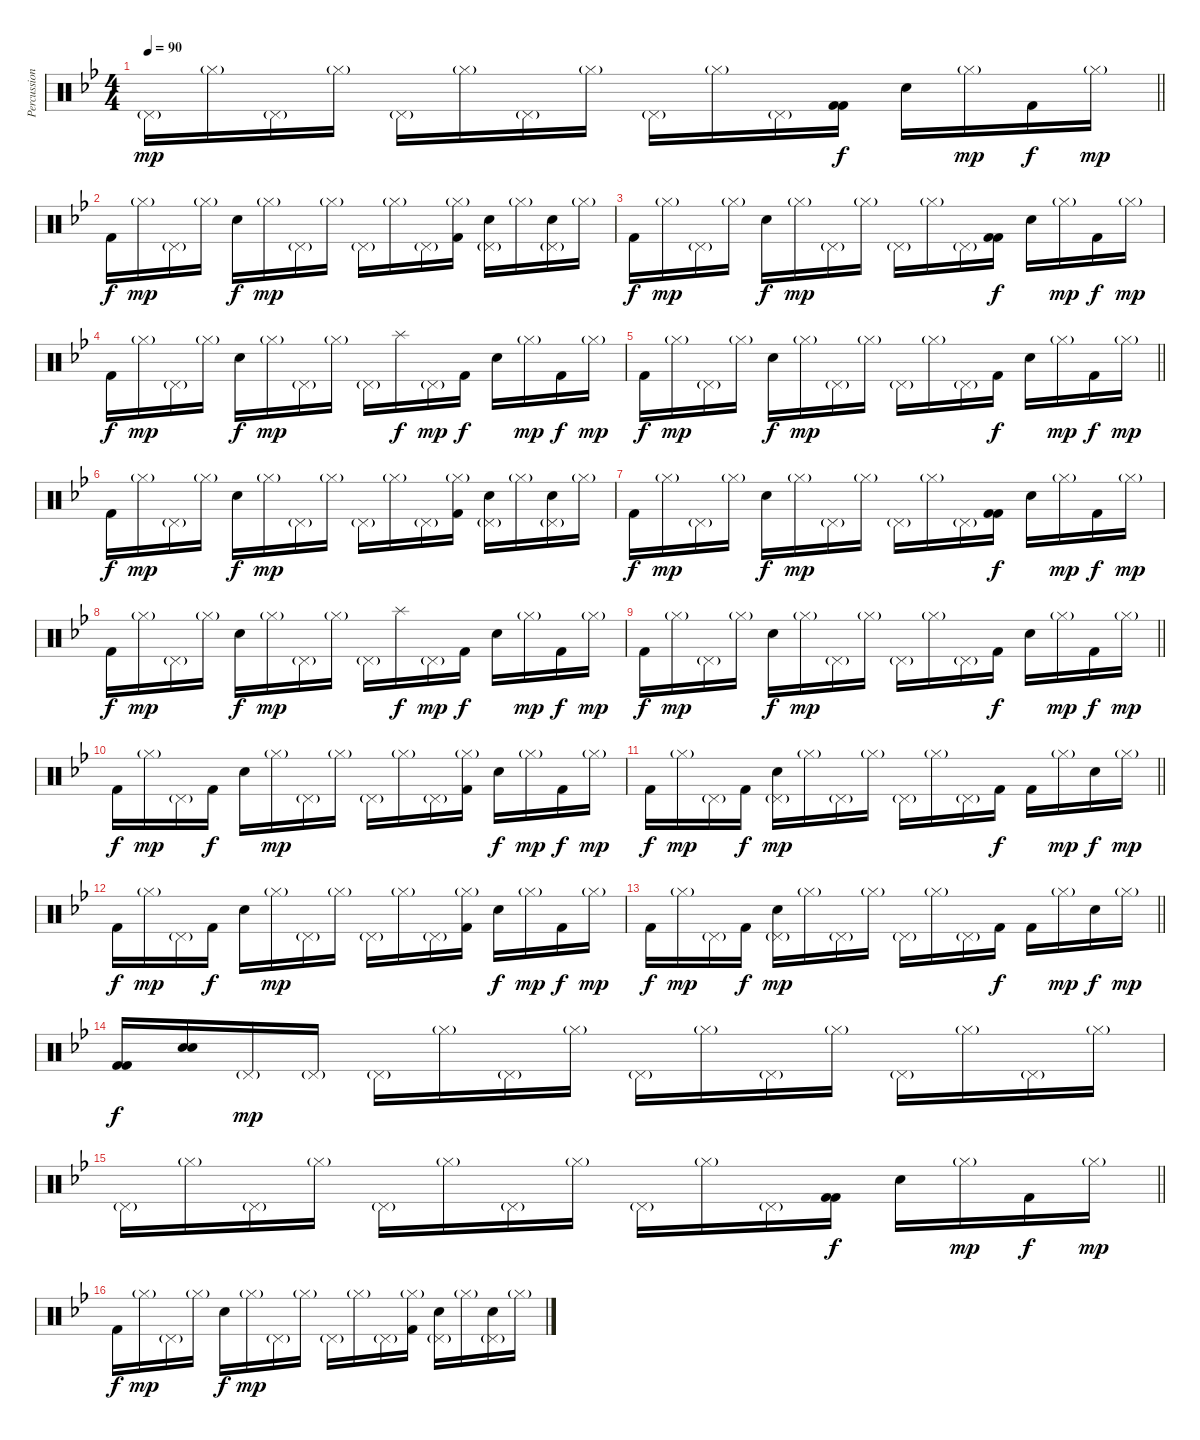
\track ("Percussion" "Percussion") {instrument percussion}
\staff {score}
\articulation defaults
\ts (4 4)
\tempo 90
\clef neutral
\barLineRight lightlight
\ks bb "Pedal Hi-Hat (hit)"{g}.16{dy mp} "Hi-Hat (closed)"{g}.16 "Pedal Hi-Hat (hit)"{g}.16 "Hi-Hat (closed)"{g}.16 "Pedal Hi-Hat (hit)"{g}.16 "Hi-Hat (closed)"{g}.16 "Pedal Hi-Hat (hit)"{g}.16 "Hi-Hat (closed)"{g}.16 "Pedal Hi-Hat (hit)"{g}.16 "Hi-Hat (closed)"{g}.16 "Pedal Hi-Hat (hit)"{g}.16
("Kick (hit) 2" "Kick (hit) 2").16{dy f} "Snare (hit) 2".16 "Hi-Hat (closed)"{g}.16{dy mp} "Kick (hit) 2".16{dy f} "Hi-Hat (closed)"{g}.16{dy mp} |
"Kick (hit) 2".16{dy f} "Hi-Hat (closed)"{g}.16{dy mp} "Pedal Hi-Hat (hit)"{g}.16 "Hi-Hat (closed)"{g}.16 "Snare (hit) 2".16{dy f} "Hi-Hat (closed)"{g}.16{dy mp} "Pedal Hi-Hat (hit)"{g}.16 "Hi-Hat (closed)"{g}.16 "Pedal Hi-Hat (hit)"{g}.16 "Hi-Hat (closed)"{g}.16 "Pedal Hi-Hat (hit)"{g}.16 ("Hi-Hat (closed)"{g} "Kick (hit) 2").16 ("Pedal Hi-Hat (hit)"{g} "Snare (hit) 2").16 "Hi-Hat (closed)"{g}.16 ("Pedal Hi-Hat (hit)"{g} "Snare (hit) 2").16 "Hi-Hat (closed)"{g}.16 |
"Kick (hit) 2".16{dy f} "Hi-Hat (closed)"{g}.16{dy mp} "Pedal Hi-Hat (hit)"{g}.16 "Hi-Hat (closed)"{g}.16 "Snare (hit) 2".16{dy f} "Hi-Hat (closed)"{g}.16{dy mp} "Pedal Hi-Hat (hit)"{g}.16 "Hi-Hat (closed)"{g}.16 "Pedal Hi-Hat (hit)"{g}.16 "Hi-Hat (closed)"{g}.16 "Pedal Hi-Hat (hit)"{g}.16 ("Kick (hit) 2" "Kick (hit) 2").16{dy f} "Snare (hit) 2".16 "Hi-Hat (closed)"{g}.16{dy mp} "Kick (hit) 2".16{dy f} "Hi-Hat (closed)"{g}.16{dy mp} |
"Kick (hit) 2".16{dy f} "Hi-Hat (closed)"{g}.16{dy mp} "Pedal Hi-Hat (hit)"{g}.16 "Hi-Hat (closed)"{g}.16 "Snare (hit) 2".16{dy f} "Hi-Hat (closed)"{g}.16{dy mp} "Pedal Hi-Hat (hit)"{g}.16 "Hi-Hat (closed)"{g}.16 "Pedal Hi-Hat (hit)"{g}.16 "Splash (hit)".16{dy f} "Pedal Hi-Hat (hit)"{g}.16{dy mp} "Kick (hit) 2".16{dy f} "Snare (hit) 2".16 "Hi-Hat (closed)"{g}.16{dy mp} "Kick (hit) 2".16{dy f} "Hi-Hat (closed)"{g}.16{dy mp} |
\barLineRight lightlight "Kick (hit) 2".16{dy f} "Hi-Hat (closed)"{g}.16{dy mp} "Pedal Hi-Hat (hit)"{g}.16 "Hi-Hat (closed)"{g}.16 "Snare (hit) 2".16{dy f} "Hi-Hat (closed)"{g}.16{dy mp} "Pedal Hi-Hat (hit)"{g}.16 "Hi-Hat (closed)"{g}.16 "Pedal Hi-Hat (hit)"{g}.16 "Hi-Hat (closed)"{g}.16 "Pedal Hi-Hat (hit)"{g}.16 "Kick (hit) 2".16{dy f} "Snare (hit) 2".16 "Hi-Hat (closed)"{g}.16{dy mp} "Kick (hit) 2".16{dy f} "Hi-Hat (closed)"{g}.16{dy mp}
|
"Kick (hit) 2".16{dy f} "Hi-Hat (closed)"{g}.16{dy mp} "Pedal Hi-Hat (hit)"{g}.16 "Hi-Hat (closed)"{g}.16 "Snare (hit) 2".16{dy f} "Hi-Hat (closed)"{g}.16{dy mp} "Pedal Hi-Hat (hit)"{g}.16 "Hi-Hat (closed)"{g}.16 "Pedal Hi-Hat (hit)"{g}.16 "Hi-Hat (closed)"{g}.16 "Pedal Hi-Hat (hit)"{g}.16 ("Hi-Hat (closed)"{g} "Kick (hit) 2").16 ("Pedal Hi-Hat (hit)"{g} "Snare (hit) 2").16 "Hi-Hat (closed)"{g}.16 ("Pedal Hi-Hat (hit)"{g} "Snare (hit) 2").16 "Hi-Hat (closed)"{g}.16 |
"Kick (hit) 2".16{dy f} "Hi-Hat (closed)"{g}.16{dy mp} "Pedal Hi-Hat (hit)"{g}.16 "Hi-Hat (closed)"{g}.16 "Snare (hit) 2".16{dy f} "Hi-Hat (closed)"{g}.16{dy mp} "Pedal Hi-Hat (hit)"{g}.16 "Hi-Hat (closed)"{g}.16 "Pedal Hi-Hat (hit)"{g}.16 "Hi-Hat (closed)"{g}.16 "Pedal Hi-Hat (hit)"{g}.16 ("Kick (hit) 2" "Kick (hit) 2").16{dy f} "Snare (hit) 2".16 "Hi-Hat (closed)"{g}.16{dy mp} "Kick (hit) 2".16{dy f} "Hi-Hat (closed)"{g}.16{dy mp} |
"Kick (hit) 2".16{dy f} "Hi-Hat (closed)"{g}.16{dy mp} "Pedal Hi-Hat (hit)"{g}.16 "Hi-Hat (closed)"{g}.16 "Snare (hit) 2".16{dy f} "Hi-Hat (closed)"{g}.16{dy mp} "Pedal Hi-Hat (hit)"{g}.16 "Hi-Hat (closed)"{g}.16 "Pedal Hi-Hat (hit)"{g}.16 "Splash (hit)".16{dy f} "Pedal Hi-Hat (hit)"{g}.16{dy mp} "Kick (hit) 2".16{dy f} "Snare (hit) 2".16 "Hi-Hat (closed)"{g}.16{dy mp} "Kick (hit) 2".16{dy f} "Hi-Hat (closed)"{g}.16{dy mp} |
\barLineRight lightlight "Kick (hit) 2".16{dy f} "Hi-Hat (closed)"{g}.16{dy mp} "Pedal Hi-Hat (hit)"{g}.16 "Hi-Hat (closed)"{g}.16 "Snare (hit) 2".16{dy f} "Hi-Hat (closed)"{g}.16{dy mp} "Pedal Hi-Hat (hit)"{g}.16 "Hi-Hat (closed)"{g}.16 "Pedal Hi-Hat (hit)"{g}.16 "Hi-Hat (closed)"{g}.16 "Pedal Hi-Hat (hit)"{g}.16 "Kick (hit) 2".16{dy f} "Snare (hit) 2".16 "Hi-Hat (closed)"{g}.16{dy mp} "Kick (hit) 2".16{dy f} "Hi-Hat (closed)"{g}.16{dy mp}
|
"Kick (hit) 2".16{dy f} "Hi-Hat (closed)"{g}.16{dy mp} "Pedal Hi-Hat (hit)"{g}.16 "Kick (hit) 2".16{dy f} "Electric Snare (hit)".16 "Hi-Hat (closed)"{g}.16{dy mp} "Pedal Hi-Hat (hit)"{g}.16 "Hi-Hat (closed)"{g}.16 "Pedal Hi-Hat (hit)"{g}.16 "Hi-Hat (closed)"{g}.16 "Pedal Hi-Hat (hit)"{g}.16 ("Hi-Hat (closed)"{g} "Kick (hit) 2").16 "Snare (hit) 2".16{dy f} "Hi-Hat (closed)"{g}.16{dy mp} "Kick (hit) 2".16{dy f} "Hi-Hat (closed)"{g}.16{dy mp} |
\barLineRight lightlight "Kick (hit) 2".16{dy f} "Hi-Hat (closed)"{g}.16{dy mp} "Pedal Hi-Hat (hit)"{g}.16 "Kick (hit) 2".16{dy f}
("Pedal Hi-Hat (hit)"{g} "Snare (hit) 2").16{dy mp} "Hi-Hat (closed)"{g}.16 "Pedal Hi-Hat (hit)"{g}.16 "Hi-Hat (closed)"{g}.16 "Pedal Hi-Hat (hit)"{g}.16 "Hi-Hat (closed)"{g}.16 "Pedal Hi-Hat (hit)"{g}.16 "Kick (hit) 2".16{dy f} "Kick (hit) 2".16 "Hi-Hat (closed)"{g}.16{dy mp} "Snare (hit) 2".16{dy f} "Hi-Hat (closed)"{g}.16{dy mp} |
"Kick (hit) 2".16{dy f} "Hi-Hat (closed)"{g}.16{dy mp} "Pedal Hi-Hat (hit)"{g}.16 "Kick (hit) 2".16{dy f} "Electric Snare (hit)".16 "Hi-Hat (closed)"{g}.16{dy mp} "Pedal Hi-Hat (hit)"{g}.16 "Hi-Hat (closed)"{g}.16 "Pedal Hi-Hat (hit)"{g}.16 "Hi-Hat (closed)"{g}.16 "Pedal Hi-Hat (hit)"{g}.16 ("Hi-Hat (closed)"{g} "Kick (hit) 2").16 "Snare (hit) 2".16{dy f} "Hi-Hat (closed)"{g}.16{dy mp} "Kick (hit) 2".16{dy f} "Hi-Hat (closed)"{g}.16{dy mp} |
\barLineRight lightlight "Kick (hit) 2".16{dy f} "Hi-Hat (closed)"{g}.16{dy mp} "Pedal Hi-Hat (hit)"{g}.16 "Kick (hit) 2".16{dy f}
("Pedal Hi-Hat (hit)"{g} "Snare (hit) 2").16{dy mp} "Hi-Hat (closed)"{g}.16 "Pedal Hi-Hat (hit)"{g}.16 "Hi-Hat (closed)"{g}.16 "Pedal Hi-Hat (hit)"{g}.16 "Hi-Hat (closed)"{g}.16 "Pedal Hi-Hat (hit)"{g}.16 "Kick (hit) 2".16{dy f} "Kick (hit) 2".16 "Hi-Hat (closed)"{g}.16{dy mp} "Snare (hit) 2".16{dy f} "Hi-Hat (closed)"{g}.16{dy mp} |
("Kick (hit) 2" "Kick (hit) 2").16{dy f} ("Snare (hit) 2" "Electric Snare (hit)").16 "Pedal Hi-Hat (hit)"{g}.16{dy mp} "Pedal Hi-Hat (hit)"{g}.16 "Pedal Hi-Hat (hit)"{g}.16 "Hi-Hat (closed)"{g}.16 "Pedal Hi-Hat (hit)"{g}.16 "Hi-Hat (closed)"{g}.16 "Pedal Hi-Hat (hit)"{g}.16 "Hi-Hat (closed)"{g}.16 "Pedal Hi-Hat (hit)"{g}.16 "Hi-Hat (closed)"{g}.16 "Pedal Hi-Hat (hit)"{g}.16 "Hi-Hat (closed)"{g}.16 "Pedal Hi-Hat (hit)"{g}.16 "Hi-Hat (closed)"{g}.16 |
\barLineRight lightlight "Pedal Hi-Hat (hit)"{g}.16 "Hi-Hat (closed)"{g}.16 "Pedal Hi-Hat (hit)"{g}.16 "Hi-Hat (closed)"{g}.16 "Pedal Hi-Hat (hit)"{g}.16 "Hi-Hat (closed)"{g}.16 "Pedal Hi-Hat (hit)"{g}.16 "Hi-Hat (closed)"{g}.16 "Pedal Hi-Hat (hit)"{g}.16 "Hi-Hat (closed)"{g}.16 "Pedal Hi-Hat (hit)"{g}.16
("Kick (hit) 2" "Kick (hit) 2").16{dy f} "Snare (hit) 2".16 "Hi-Hat (closed)"{g}.16{dy mp} "Kick (hit) 2".16{dy f} "Hi-Hat (closed)"{g}.16{dy mp} |
"Kick (hit) 2".16{dy f} "Hi-Hat (closed)"{g}.16{dy mp} "Pedal Hi-Hat (hit)"{g}.16 "Hi-Hat (closed)"{g}.16 "Snare (hit) 2".16{dy f} "Hi-Hat (closed)"{g}.16{dy mp} "Pedal Hi-Hat (hit)"{g}.16 "Hi-Hat (closed)"{g}.16 "Pedal Hi-Hat (hit)"{g}.16 "Hi-Hat (closed)"{g}.16 "Pedal Hi-Hat (hit)"{g}.16 ("Hi-Hat (closed)"{g} "Kick (hit) 2").16 ("Pedal Hi-Hat (hit)"{g} "Snare (hit) 2").16 "Hi-Hat (closed)"{g}.16 ("Pedal Hi-Hat (hit)"{g} "Snare (hit) 2").16 "Hi-Hat (closed)"{g}.16
